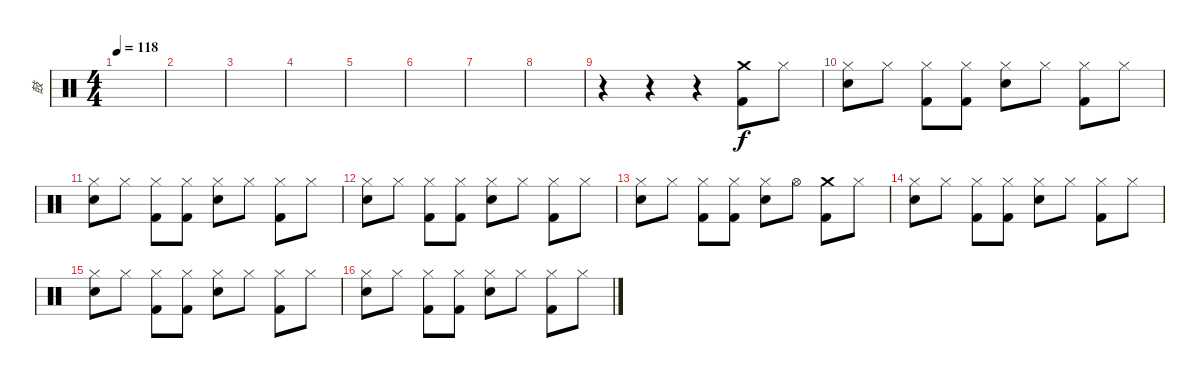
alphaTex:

\track ("鼓" "鼓") {instrument percussion}
\staff {score}
\articulation defaults
\ts (4 4)
\tempo 118
\clef neutral
\ks c
|
|
|
|
|
|
|
|
r.4 r.4 r.4 ("Crash medium (hit)" "Kick (hit) 2").8 "Hi-Hat (closed)".8 |
("Hi-Hat (closed)" "Electric Snare (hit)").8 "Hi-Hat (closed)".8 ("Hi-Hat (closed)" "Kick (hit) 2").8 ("Hi-Hat (closed)" "Kick (hit) 2").8 ("Hi-Hat (closed)" "Electric Snare (hit)").8 "Hi-Hat (closed)".8 ("Hi-Hat (closed)" "Kick (hit) 2").8 "Hi-Hat (closed)".8 |
("Hi-Hat (closed)" "Electric Snare (hit)").8 "Hi-Hat (closed)".8 ("Hi-Hat (closed)" "Kick (hit) 2").8 ("Hi-Hat (closed)" "Kick (hit) 2").8 ("Hi-Hat (closed)" "Electric Snare (hit)").8 "Hi-Hat (closed)".8 ("Hi-Hat (closed)" "Kick (hit) 2").8 "Hi-Hat (closed)".8 |
("Hi-Hat (closed)" "Electric Snare (hit)").8 "Hi-Hat (closed)".8 ("Hi-Hat (closed)" "Kick (hit) 2").8 ("Hi-Hat (closed)" "Kick (hit) 2").8 ("Hi-Hat (closed)" "Electric Snare (hit)").8 "Hi-Hat (closed)".8 ("Hi-Hat (closed)" "Kick (hit) 2").8 "Hi-Hat (closed)".8 |
("Hi-Hat (closed)" "Electric Snare (hit)").8 "Hi-Hat (closed)".8 ("Hi-Hat (closed)" "Kick (hit) 2").8 ("Hi-Hat (closed)" "Kick (hit) 2").8 ("Hi-Hat (closed)" "Electric Snare (hit)").8 "Hi-Hat (open)".8 ("Crash medium (hit)" "Kick (hit) 2").8 "Hi-Hat (closed)".8 |
("Hi-Hat (closed)" "Electric Snare (hit)").8 "Hi-Hat (closed)".8 ("Hi-Hat (closed)" "Kick (hit) 2").8 ("Hi-Hat (closed)" "Kick (hit) 2").8 ("Hi-Hat (closed)" "Electric Snare (hit)").8 "Hi-Hat (closed)".8 ("Hi-Hat (closed)" "Kick (hit) 2").8 "Hi-Hat (closed)".8 |
("Hi-Hat (closed)" "Electric Snare (hit)").8 "Hi-Hat (closed)".8 ("Hi-Hat (closed)" "Kick (hit) 2").8 ("Hi-Hat (closed)" "Kick (hit) 2").8 ("Hi-Hat (closed)" "Electric Snare (hit)").8 "Hi-Hat (closed)".8 ("Hi-Hat (closed)" "Kick (hit) 2").8 "Hi-Hat (closed)".8 |
("Hi-Hat (closed)" "Electric Snare (hit)").8 "Hi-Hat (closed)".8 ("Hi-Hat (closed)" "Kick (hit) 2").8 ("Hi-Hat (closed)" "Kick (hit) 2").8 ("Hi-Hat (closed)" "Electric Snare (hit)").8 "Hi-Hat (closed)".8 ("Hi-Hat (closed)" "Kick (hit) 2").8 "Hi-Hat (closed)".8
